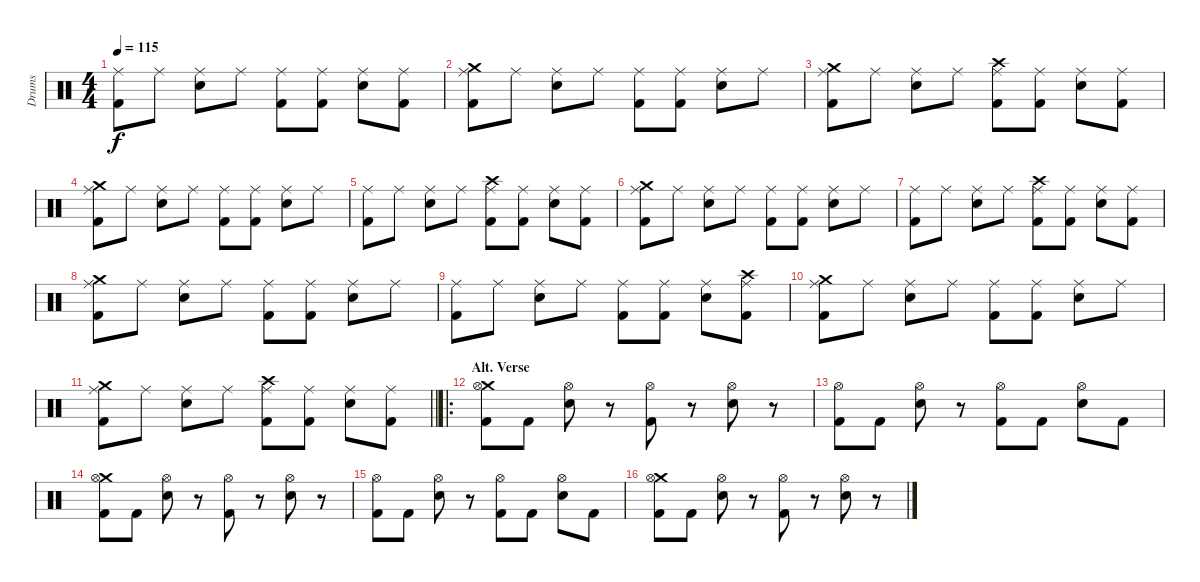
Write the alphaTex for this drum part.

\track ("Drums" "Drums") {instrument percussion}
\staff {score}
\articulation defaults
\ts (4 4)
\tempo 115
\clef neutral
\ks c
("Ride (middle)" "Kick (hit) 2").8{dy f} "Ride (middle)".8 ("Ride (middle)" "Snare (hit) 2").8 "Ride (middle)".8 ("Ride (middle)" "Kick (hit) 2").8 ("Ride (middle)" "Kick (hit) 2").8 ("Ride (middle)" "Snare (hit) 2").8 ("Ride (middle)" "Kick (hit) 2").8 |
("Crash medium (hit)" "Ride (middle)" "Kick (hit) 2").8 "Ride (middle)".8 ("Ride (middle)" "Snare (hit) 2").8 "Ride (middle)".8 ("Ride (middle)" "Kick (hit) 2").8 ("Ride (middle)" "Kick (hit) 2").8 ("Ride (middle)" "Snare (hit) 2").8 "Ride (middle)".8 |
("Crash medium (hit)" "Ride (middle)" "Kick (hit) 2").8 "Ride (middle)".8 ("Ride (middle)" "Snare (hit) 2").8 "Ride (middle)".8 ("Crash high (hit)" "Ride (middle)" "Kick (hit) 2").8 ("Ride (middle)" "Kick (hit) 2").8 ("Ride (middle)" "Snare (hit) 2").8 ("Ride (middle)" "Kick (hit) 2").8 |
("Crash medium (hit)" "Ride (middle)" "Kick (hit) 2").8 "Ride (middle)".8 ("Ride (middle)" "Snare (hit) 2").8 "Ride (middle)".8 ("Ride (middle)" "Kick (hit) 2").8 ("Ride (middle)" "Kick (hit) 2").8 ("Ride (middle)" "Snare (hit) 2").8 "Ride (middle)".8 |
("Ride (middle)" "Kick (hit) 2").8 "Ride (middle)".8 ("Ride (middle)" "Snare (hit) 2").8 "Ride (middle)".8 ("Crash high (hit)" "Ride (middle)" "Kick (hit) 2").8 ("Ride (middle)" "Kick (hit) 2").8 ("Ride (middle)" "Snare (hit) 2").8 ("Ride (middle)" "Kick (hit) 2").8 |
("Crash medium (hit)" "Ride (middle)" "Kick (hit) 2").8 "Ride (middle)".8 ("Ride (middle)" "Snare (hit) 2").8 "Ride (middle)".8 ("Ride (middle)" "Kick (hit) 2").8 ("Ride (middle)" "Kick (hit) 2").8 ("Ride (middle)" "Snare (hit) 2").8 "Ride (middle)".8 |
("Ride (middle)" "Kick (hit) 2").8 "Ride (middle)".8 ("Ride (middle)" "Snare (hit) 2").8 "Ride (middle)".8 ("Crash high (hit)" "Ride (middle)" "Kick (hit) 2").8 ("Ride (middle)" "Kick (hit) 2").8 ("Ride (middle)" "Snare (hit) 2").8 ("Ride (middle)" "Kick (hit) 2").8 |
("Crash medium (hit)" "Ride (middle)" "Kick (hit) 2").8 "Ride (middle)".8 ("Ride (middle)" "Snare (hit) 2").8 "Ride (middle)".8 ("Ride (middle)" "Kick (hit) 2").8 ("Ride (middle)" "Kick (hit) 2").8 ("Ride (middle)" "Snare (hit) 2").8 "Ride (middle)".8 |
("Ride (middle)" "Kick (hit) 2").8 "Ride (middle)".8 ("Ride (middle)" "Snare (hit) 2").8 "Ride (middle)".8 ("Ride (middle)" "Kick (hit) 2").8 ("Ride (middle)" "Kick (hit) 2").8 ("Ride (middle)" "Snare (hit) 2").8 ("Crash high (hit)" "Ride (middle)" "Kick (hit) 2").8 |
("Crash medium (hit)" "Ride (middle)" "Kick (hit) 2").8 "Ride (middle)".8 ("Ride (middle)" "Snare (hit) 2").8 "Ride (middle)".8 ("Ride (middle)" "Kick (hit) 2").8 ("Ride (middle)" "Kick (hit) 2").8 ("Ride (middle)" "Snare (hit) 2").8 "Ride (middle)".8 |
\barLineRight lightlight
("Crash medium (hit)" "Ride (middle)" "Kick (hit) 2").8 "Ride (middle)".8 ("Ride (middle)" "Snare (hit) 2").8 "Ride (middle)".8 ("Crash high (hit)" "Ride (middle)" "Kick (hit) 2").8 ("Ride (middle)" "Kick (hit) 2").8 ("Ride (middle)" "Snare (hit) 2").8 ("Ride (middle)" "Kick (hit) 2").8 |
\ro
\section ("" "Alt. Verse")
("Crash medium (hit)" "Hi-Hat (open)" "Kick (hit) 2").8 "Kick (hit) 2".8 ("Hi-Hat (open)" "Snare (hit) 2").8 r.8 ("Hi-Hat (open)" "Kick (hit) 2").8 r.8 ("Hi-Hat (open)" "Snare (hit) 2").8 r.8 |
("Hi-Hat (open)" "Kick (hit) 2").8 "Kick (hit) 2".8 ("Hi-Hat (open)" "Snare (hit) 2").8 r.8 ("Hi-Hat (open)" "Kick (hit) 2").8 "Kick (hit) 2".8 ("Hi-Hat (open)" "Snare (hit) 2").8 "Kick (hit) 2".8 |
("Crash medium (hit)" "Hi-Hat (open)" "Kick (hit) 2").8 "Kick (hit) 2".8 ("Hi-Hat (open)" "Snare (hit) 2").8 r.8 ("Hi-Hat (open)" "Kick (hit) 2").8 r.8 ("Hi-Hat (open)" "Snare (hit) 2").8 r.8 |
("Hi-Hat (open)" "Kick (hit) 2").8 "Kick (hit) 2".8 ("Hi-Hat (open)" "Snare (hit) 2").8 r.8 ("Hi-Hat (open)" "Kick (hit) 2").8 "Kick (hit) 2".8 ("Hi-Hat (open)" "Snare (hit) 2").8 "Kick (hit) 2".8 |
("Crash medium (hit)" "Hi-Hat (open)" "Kick (hit) 2").8 "Kick (hit) 2".8 ("Hi-Hat (open)" "Snare (hit) 2").8 r.8 ("Hi-Hat (open)" "Kick (hit) 2").8 r.8 ("Hi-Hat (open)" "Snare (hit) 2").8 r.8
